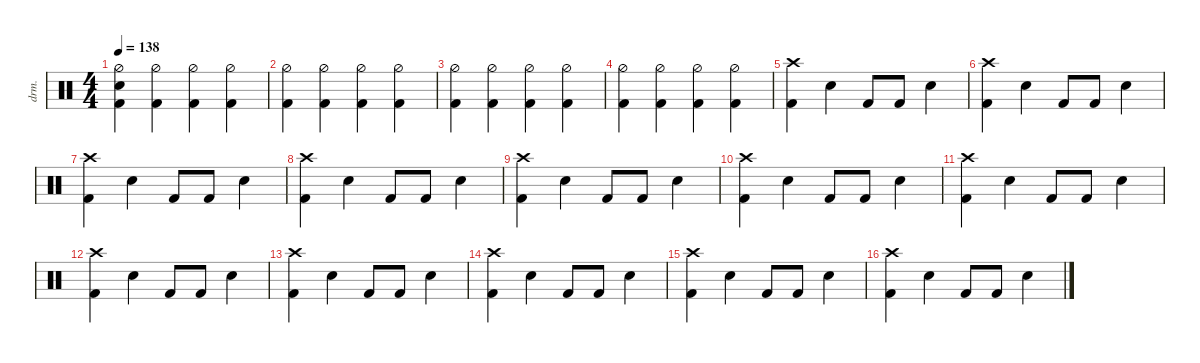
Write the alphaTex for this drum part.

\defaultSystemsLayout 4
\hideDynamics
\bracketExtendMode nobrackets
\otherSystemsTrackNameOrientation horizontal
\track ("Drumkit" "drm.") {instrument percussion bank 128}
\staff {score}
\articulation defaults
\ts (4 4)
\tempo 138
\clef neutral
\ks c
("Kick (hit) 2" "Snare (hit) 2" "Hi-Hat (half)").4{dy mf beam Down} ("Kick (hit) 2" "Hi-Hat (half)").4{beam Down} ("Kick (hit) 2" "Hi-Hat (half)").4{beam Down} ("Kick (hit) 2" "Hi-Hat (half)").4{beam Down} |
("Kick (hit) 2" "Hi-Hat (half)").4{beam Down} ("Kick (hit) 2" "Hi-Hat (half)").4{beam Down} ("Kick (hit) 2" "Hi-Hat (half)").4{beam Down} ("Kick (hit) 2" "Hi-Hat (half)").4{beam Down} |
("Kick (hit) 2" "Hi-Hat (half)").4{beam Down} ("Kick (hit) 2" "Hi-Hat (half)").4{beam Down} ("Kick (hit) 2" "Hi-Hat (half)").4{beam Down} ("Kick (hit) 2" "Hi-Hat (half)").4{beam Down} |
("Kick (hit) 2" "Hi-Hat (half)").4{beam Down} ("Kick (hit) 2" "Hi-Hat (half)").4{beam Down} ("Kick (hit) 2" "Hi-Hat (half)").4{beam Down} ("Kick (hit) 2" "Hi-Hat (half)").4{beam Down} |
("Crash high (hit)" "Kick (hit) 2").4{beam Down} "Snare (hit) 2".4{beam Down} "Kick (hit) 2".8{beam Up} "Kick (hit) 2".8{beam Up} "Snare (hit) 2".4{beam Down} |
("Crash high (hit)" "Kick (hit) 2").4{beam Down} "Snare (hit) 2".4{beam Down} "Kick (hit) 2".8{beam Up} "Kick (hit) 2".8{beam Up} "Snare (hit) 2".4{beam Down} |
("Crash high (hit)" "Kick (hit) 2").4{beam Down} "Snare (hit) 2".4{beam Down} "Kick (hit) 2".8{beam Up} "Kick (hit) 2".8{beam Up} "Snare (hit) 2".4{beam Down} |
("Crash high (hit)" "Kick (hit) 2").4{beam Down} "Snare (hit) 2".4{beam Down} "Kick (hit) 2".8{beam Up} "Kick (hit) 2".8{beam Up} "Snare (hit) 2".4{beam Down} |
("Crash high (hit)" "Kick (hit) 2").4{beam Down} "Snare (hit) 2".4{beam Down} "Kick (hit) 2".8{beam Up} "Kick (hit) 2".8{beam Up} "Snare (hit) 2".4{beam Down} |
("Crash high (hit)" "Kick (hit) 2").4{beam Down} "Snare (hit) 2".4{beam Down} "Kick (hit) 2".8{beam Up} "Kick (hit) 2".8{beam Up} "Snare (hit) 2".4{beam Down} |
("Crash high (hit)" "Kick (hit) 2").4{beam Down} "Snare (hit) 2".4{beam Down} "Kick (hit) 2".8{beam Up} "Kick (hit) 2".8{beam Up} "Snare (hit) 2".4{beam Down} |
("Crash high (hit)" "Kick (hit) 2").4{beam Down} "Snare (hit) 2".4{beam Down} "Kick (hit) 2".8{beam Up} "Kick (hit) 2".8{beam Up} "Snare (hit) 2".4{beam Down} |
("Crash high (hit)" "Kick (hit) 2").4{beam Down} "Snare (hit) 2".4{beam Down} "Kick (hit) 2".8{beam Up} "Kick (hit) 2".8{beam Up} "Snare (hit) 2".4{beam Down} |
("Crash high (hit)" "Kick (hit) 2").4{beam Down} "Snare (hit) 2".4{beam Down} "Kick (hit) 2".8{beam Up} "Kick (hit) 2".8{beam Up} "Snare (hit) 2".4{beam Down} |
("Crash high (hit)" "Kick (hit) 2").4{beam Down} "Snare (hit) 2".4{beam Down} "Kick (hit) 2".8{beam Up} "Kick (hit) 2".8{beam Up} "Snare (hit) 2".4{beam Down} |
("Crash high (hit)" "Kick (hit) 2").4{beam Down} "Snare (hit) 2".4{beam Down} "Kick (hit) 2".8{beam Up} "Kick (hit) 2".8{beam Up} "Snare (hit) 2".4{beam Down}
